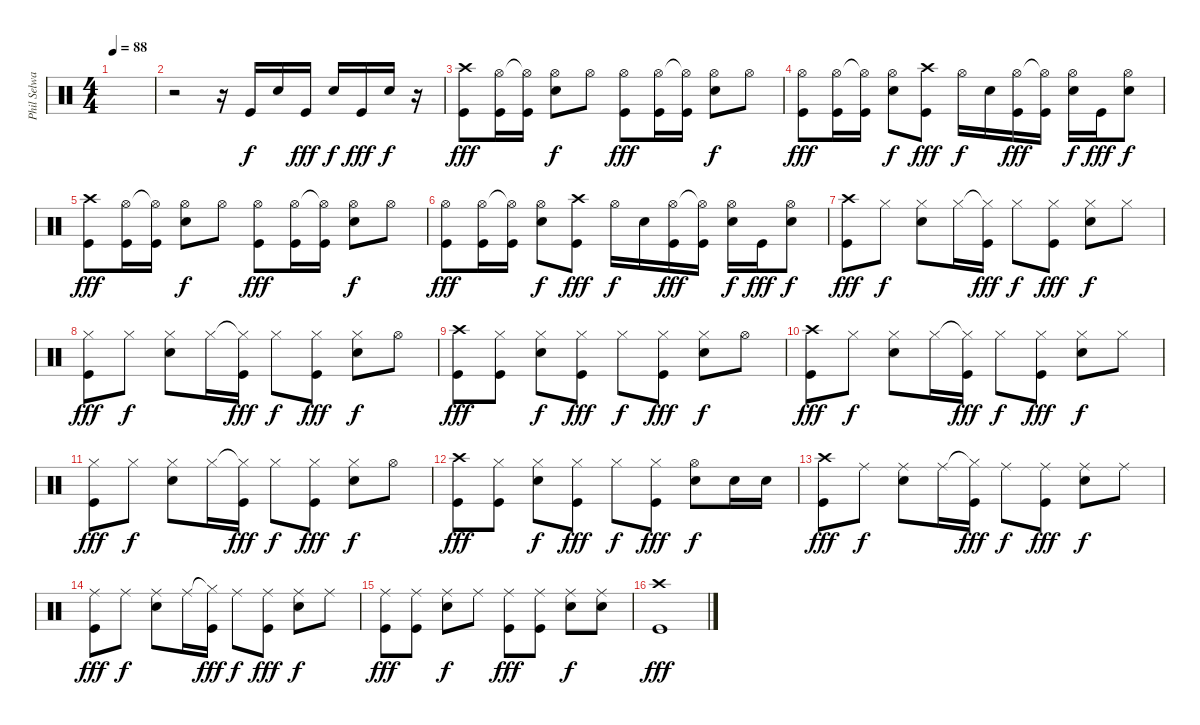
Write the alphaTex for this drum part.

\track ("Phil Selway" "Phil Selwa") {instrument percussion}
\staff {score}
\articulation defaults
\ts (4 4)
\tempo 88
\clef neutral
\ks c
|
r.2 r.16 "Kick (hit)".16 "Snare (hit) 2".16{dy f} "Kick (hit)".16{dy fff} "Snare (hit) 2".16{dy f} "Kick (hit)".16{dy fff} "Snare (hit) 2".16{dy f} r.16 |
("Crash high (hit)" "Kick (hit)").8{dy fff} ("Hi-Hat (open)" "Kick (hit)").16 ("Hi-Hat (open)"{t} "Kick (hit)").16 ("Hi-Hat (open)" "Snare (hit) 2").8{dy f} "Hi-Hat (open)".8 ("Hi-Hat (open)" "Kick (hit)").8{dy fff} ("Hi-Hat (open)" "Kick (hit)").16 ("Hi-Hat (open)"{t} "Kick (hit)").16 ("Hi-Hat (open)" "Snare (hit) 2").8{dy f} "Hi-Hat (open)".8 |
("Hi-Hat (open)" "Kick (hit)").8{dy fff} ("Hi-Hat (open)" "Kick (hit)").16 ("Hi-Hat (open)"{t} "Kick (hit)").16 ("Hi-Hat (open)" "Snare (hit) 2").8{dy f} ("Crash high (hit)" "Kick (hit)").8{dy fff} "Hi-Hat (open)".16{dy f} "Snare (hit) 2".16 ("Hi-Hat (open)" "Kick (hit)").16{dy fff} ("Hi-Hat (open)"{t} "Kick (hit)").16 ("Hi-Hat (open)" "Snare (hit) 2").16{dy f} "Kick (hit)".16{dy fff} ("Hi-Hat (open)" "Snare (hit) 2").8{dy f} |
("Crash high (hit)" "Kick (hit)").8{dy fff} ("Hi-Hat (open)" "Kick (hit)").16 ("Hi-Hat (open)"{t} "Kick (hit)").16 ("Hi-Hat (open)" "Snare (hit) 2").8{dy f} "Hi-Hat (open)".8 ("Hi-Hat (open)" "Kick (hit)").8{dy fff} ("Hi-Hat (open)" "Kick (hit)").16 ("Hi-Hat (open)"{t} "Kick (hit)").16 ("Hi-Hat (open)" "Snare (hit) 2").8{dy f} "Hi-Hat (open)".8 |
("Hi-Hat (open)" "Kick (hit)").8{dy fff} ("Hi-Hat (open)" "Kick (hit)").16 ("Hi-Hat (open)"{t} "Kick (hit)").16 ("Hi-Hat (open)" "Snare (hit) 2").8{dy f} ("Crash high (hit)" "Kick (hit)").8{dy fff} "Hi-Hat (open)".16{dy f} "Snare (hit) 2".16 ("Hi-Hat (open)" "Kick (hit)").16{dy fff} ("Hi-Hat (open)"{t} "Kick (hit)").16 ("Hi-Hat (open)" "Snare (hit) 2").16{dy f} "Kick (hit)".16{dy fff} ("Hi-Hat (open)" "Snare (hit) 2").8{dy f} |
("Crash high (hit)" "Kick (hit)").8{dy fff} "Hi-Hat (closed)".8{dy f} ("Hi-Hat (closed)" "Snare (hit) 2").8 "Hi-Hat (closed)".16 ("Hi-Hat (closed)"{t} "Kick (hit)").16{dy fff} "Hi-Hat (closed)".8{dy f} ("Hi-Hat (closed)" "Kick (hit)").8{dy fff} ("Hi-Hat (closed)" "Snare (hit) 2").8{dy f} "Hi-Hat (closed)".8 |
("Hi-Hat (closed)" "Kick (hit)").8{dy fff} "Hi-Hat (closed)".8{dy f} ("Hi-Hat (closed)" "Snare (hit) 2").8 "Hi-Hat (closed)".16 ("Hi-Hat (closed)"{t} "Kick (hit)").16{dy fff} "Hi-Hat (closed)".8{dy f} ("Hi-Hat (closed)" "Kick (hit)").8{dy fff} ("Hi-Hat (closed)" "Snare (hit) 2").8{dy f} "Hi-Hat (open)".8 |
("Crash high (hit)" "Kick (hit)").8{dy fff} ("Hi-Hat (closed)" "Kick (hit)").8 ("Hi-Hat (closed)" "Snare (hit) 2").8{dy f} ("Hi-Hat (closed)" "Kick (hit)").8{dy fff} "Hi-Hat (closed)".8{dy f} ("Hi-Hat (closed)" "Kick (hit)").8{dy fff} ("Hi-Hat (closed)" "Snare (hit) 2").8{dy f} "Hi-Hat (open)".8 |
("Crash high (hit)" "Kick (hit)").8{dy fff} "Hi-Hat (closed)".8{dy f} ("Hi-Hat (closed)" "Snare (hit) 2").8 "Hi-Hat (closed)".16 ("Hi-Hat (closed)"{t} "Kick (hit)").16{dy fff} "Hi-Hat (closed)".8{dy f} ("Hi-Hat (closed)" "Kick (hit)").8{dy fff} ("Hi-Hat (closed)" "Snare (hit) 2").8{dy f} "Hi-Hat (closed)".8 |
("Hi-Hat (closed)" "Kick (hit)").8{dy fff} "Hi-Hat (closed)".8{dy f} ("Hi-Hat (closed)" "Snare (hit) 2").8 "Hi-Hat (closed)".16 ("Hi-Hat (closed)"{t} "Kick (hit)").16{dy fff} "Hi-Hat (closed)".8{dy f} ("Hi-Hat (closed)" "Kick (hit)").8{dy fff} ("Hi-Hat (closed)" "Snare (hit) 2").8{dy f} "Hi-Hat (open)".8 |
("Crash high (hit)" "Kick (hit)").8{dy fff} ("Hi-Hat (closed)" "Kick (hit)").8 ("Hi-Hat (closed)" "Snare (hit) 2").8{dy f} ("Hi-Hat (closed)" "Kick (hit)").8{dy fff} "Hi-Hat (closed)".8{dy f} ("Hi-Hat (closed)" "Kick (hit)").8{dy fff} ("Hi-Hat (open)" "Snare (hit) 2").8{dy f} "Snare (hit) 2".16 "Snare (hit) 2".16 |
("Crash high (hit)" "Kick (hit)").8{dy fff} "Ride (middle)".8{dy f} ("Ride (middle)" "Snare (hit) 2").8 "Ride (middle)".16 ("Hi-Hat (closed)"{t} "Kick (hit)").16{dy fff} "Ride (middle)".8{dy f} ("Ride (middle)" "Kick (hit)").8{dy fff} ("Ride (middle)" "Snare (hit) 2").8{dy f} "Ride (middle)".8 |
("Ride (middle)" "Kick (hit)").8{dy fff} "Ride (middle)".8{dy f} ("Ride (middle)" "Snare (hit) 2").8 "Ride (middle)".16 ("Hi-Hat (closed)"{t} "Kick (hit)").16{dy fff} "Ride (middle)".8{dy f} ("Ride (middle)" "Kick (hit)").8{dy fff} ("Ride (middle)" "Snare (hit) 2").8{dy f} "Ride (middle)".8 |
("Ride (middle)" "Kick (hit)").8{dy fff} ("Ride (middle)" "Kick (hit)").8 ("Ride (middle)" "Snare (hit) 2").8{dy f} "Ride (middle)".8 ("Ride (middle)" "Kick (hit)").8{dy fff} ("Ride (middle)" "Kick (hit)").8 ("Ride (middle)" "Snare (hit) 2").8{dy f} ("Ride (middle)" "Snare (hit) 2").8 |
("Crash high (hit)" "Kick (hit)").1{dy fff}
